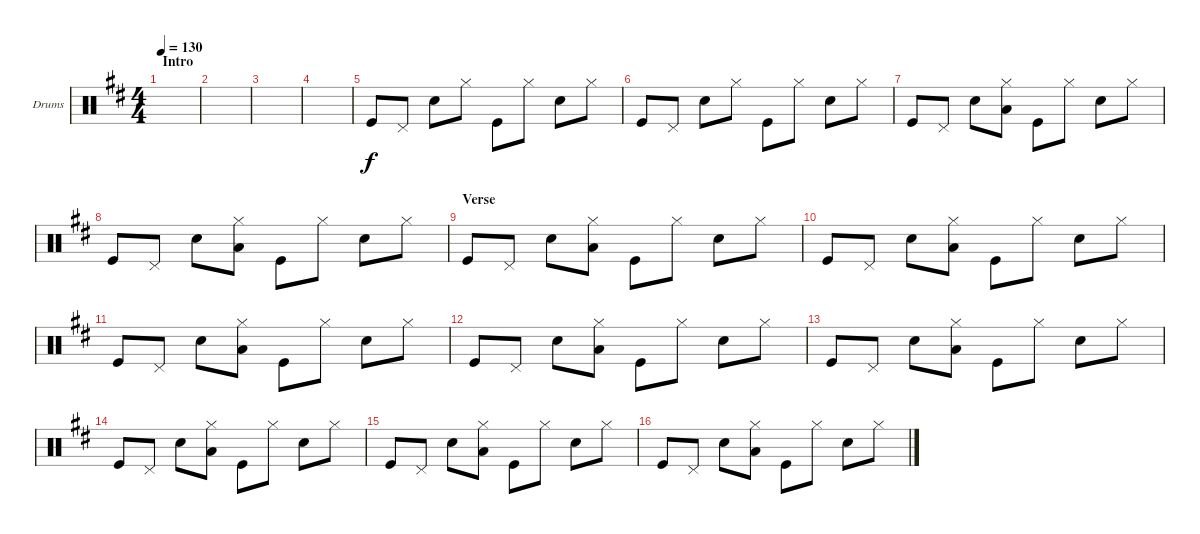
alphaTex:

\defaultSystemsLayout 4
\bracketExtendMode groupsimilarinstruments
\firstSystemTrackNameOrientation horizontal
\otherSystemsTrackNameOrientation horizontal
\track ("Drumkit" "Drums") {instrument percussion}
\staff {score}
\articulation defaults
\ts (4 4)
\section ("" "Intro")
\tempo 130
\clef neutral
\scale
0.474178
\ks d
|
\scale
0.262911 |
\scale
0.262911 |
\scale
0.333333 |
\scale
0.333333 "Kick (hit)".8 "Pedal Hi-Hat (hit)".8 "Snare (hit) 2".8 "Hi-Hat (closed)".8 "Kick (hit)".8 "Hi-Hat (closed)".8 "Snare (hit) 2".8 "Hi-Hat (closed)".8 |
\scale
0.333333 "Kick (hit)".8 "Pedal Hi-Hat (hit)".8 "Snare (hit) 2".8 "Hi-Hat (closed)".8 "Kick (hit)".8 "Hi-Hat (closed)".8 "Snare (hit) 2".8 "Hi-Hat (closed)".8 |
\scale
0.333333 "Kick (hit)".8 "Pedal Hi-Hat (hit)".8 "Snare (hit) 2".8 ("Hi-Hat (closed)" "Low Tom (hit)").8 "Kick (hit)".8 "Hi-Hat (closed)".8 "Snare (hit) 2".8 "Hi-Hat (closed)".8 |
\scale
0.333333 "Kick (hit)".8 "Pedal Hi-Hat (hit)".8 "Snare (hit) 2".8 ("Hi-Hat (closed)" "Low Tom (hit)").8 "Kick (hit)".8 "Hi-Hat (closed)".8 "Snare (hit) 2".8 "Hi-Hat (closed)".8 |
\section ("" "Verse")
\scale
0.333333 "Kick (hit)".8 "Pedal Hi-Hat (hit)".8 "Snare (hit) 2".8 ("Hi-Hat (closed)" "Low Tom (hit)").8 "Kick (hit)".8 "Hi-Hat (closed)".8 "Snare (hit) 2".8 "Hi-Hat (closed)".8 |
\scale
0.333333 "Kick (hit)".8 "Pedal Hi-Hat (hit)".8 "Snare (hit) 2".8 ("Hi-Hat (closed)" "Low Tom (hit)").8 "Kick (hit)".8 "Hi-Hat (closed)".8 "Snare (hit) 2".8 "Hi-Hat (closed)".8 |
\scale
0.333333 "Kick (hit)".8 "Pedal Hi-Hat (hit)".8 "Snare (hit) 2".8 ("Hi-Hat (closed)" "Low Tom (hit)").8 "Kick (hit)".8 "Hi-Hat (closed)".8 "Snare (hit) 2".8 "Hi-Hat (closed)".8 |
\scale
0.333333 "Kick (hit)".8 "Pedal Hi-Hat (hit)".8 "Snare (hit) 2".8 ("Hi-Hat (closed)" "Low Tom (hit)").8 "Kick (hit)".8 "Hi-Hat (closed)".8 "Snare (hit) 2".8 "Hi-Hat (closed)".8 |
\scale
0.333333 "Kick (hit)".8 "Pedal Hi-Hat (hit)".8 "Snare (hit) 2".8 ("Hi-Hat (closed)" "Low Tom (hit)").8 "Kick (hit)".8 "Hi-Hat (closed)".8 "Snare (hit) 2".8 "Hi-Hat (closed)".8 |
\scale
0.333333 "Kick (hit)".8 "Pedal Hi-Hat (hit)".8 "Snare (hit) 2".8 ("Hi-Hat (closed)" "Low Tom (hit)").8 "Kick (hit)".8 "Hi-Hat (closed)".8 "Snare (hit) 2".8 "Hi-Hat (closed)".8 |
\scale
0.333333 "Kick (hit)".8 "Pedal Hi-Hat (hit)".8 "Snare (hit) 2".8 ("Hi-Hat (closed)" "Low Tom (hit)").8 "Kick (hit)".8 "Hi-Hat (closed)".8 "Snare (hit) 2".8 "Hi-Hat (closed)".8 |
\scale
0.333333 "Kick (hit)".8 "Pedal Hi-Hat (hit)".8 "Snare (hit) 2".8 ("Hi-Hat (closed)" "Low Tom (hit)").8 "Kick (hit)".8 "Hi-Hat (closed)".8 "Snare (hit) 2".8 "Hi-Hat (closed)".8
